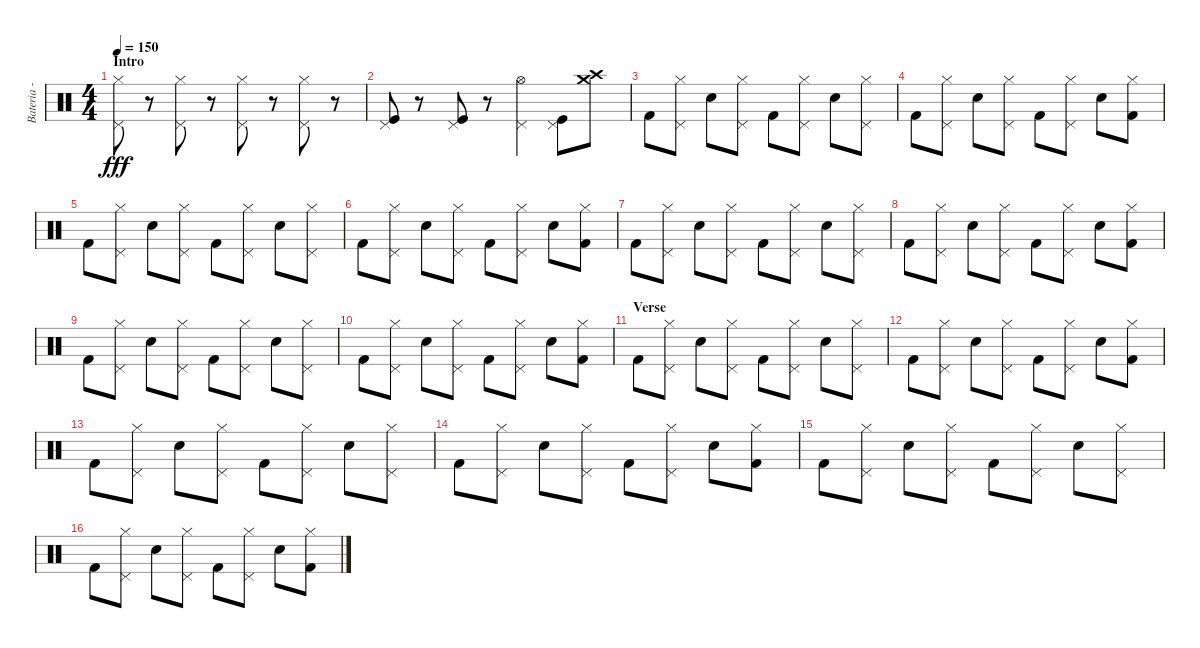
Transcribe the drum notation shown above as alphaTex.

\track ("Bateria - Larzon" "Bateria - ") {instrument percussion}
\staff {score}
\articulation defaults
\ts (4 4)
\section ("" "Intro")
\tempo 150
\clef neutral
\ks c
("Pedal Hi-Hat (hit)" "Hi-Hat (closed)").8{dy fff} r.8 ("Pedal Hi-Hat (hit)" "Hi-Hat (closed)").8 r.8 ("Pedal Hi-Hat (hit)" "Hi-Hat (closed)").8 r.8 ("Pedal Hi-Hat (hit)" "Hi-Hat (closed)").8 r.8 |
("Pedal Hi-Hat (hit)" "Kick (hit)").8 r.8 ("Pedal Hi-Hat (hit)" "Kick (hit)").8 r.8 ("Pedal Hi-Hat (hit)" "Hi-Hat (open)").4 ("Pedal Hi-Hat (hit)" "Kick (hit)").8 ("Crash medium (hit)" "Crash high (hit)").8 |
"Kick (hit) 2".8 ("Hi-Hat (closed)" "Pedal Hi-Hat (hit)").8 "Electric Snare (hit)".8 ("Hi-Hat (closed)" "Pedal Hi-Hat (hit)").8 "Kick (hit) 2".8 ("Hi-Hat (closed)" "Pedal Hi-Hat (hit)").8 "Electric Snare (hit)".8 ("Hi-Hat (closed)" "Pedal Hi-Hat (hit)").8 |
"Kick (hit) 2".8 ("Hi-Hat (closed)" "Pedal Hi-Hat (hit)").8 "Electric Snare (hit)".8 ("Hi-Hat (closed)" "Pedal Hi-Hat (hit)").8 "Kick (hit) 2".8 ("Hi-Hat (closed)" "Pedal Hi-Hat (hit)").8 "Electric Snare (hit)".8 ("Kick (hit) 2" "Hi-Hat (closed)").8 |
"Kick (hit) 2".8 ("Hi-Hat (closed)" "Pedal Hi-Hat (hit)").8 "Electric Snare (hit)".8 ("Hi-Hat (closed)" "Pedal Hi-Hat (hit)").8 "Kick (hit) 2".8 ("Hi-Hat (closed)" "Pedal Hi-Hat (hit)").8 "Electric Snare (hit)".8 ("Hi-Hat (closed)" "Pedal Hi-Hat (hit)").8 |
"Kick (hit) 2".8 ("Hi-Hat (closed)" "Pedal Hi-Hat (hit)").8 "Electric Snare (hit)".8 ("Hi-Hat (closed)" "Pedal Hi-Hat (hit)").8 "Kick (hit) 2".8 ("Hi-Hat (closed)" "Pedal Hi-Hat (hit)").8 "Electric Snare (hit)".8 ("Kick (hit) 2" "Hi-Hat (closed)").8 |
"Kick (hit) 2".8 ("Hi-Hat (closed)" "Pedal Hi-Hat (hit)").8 "Electric Snare (hit)".8 ("Hi-Hat (closed)" "Pedal Hi-Hat (hit)").8 "Kick (hit) 2".8 ("Hi-Hat (closed)" "Pedal Hi-Hat (hit)").8 "Electric Snare (hit)".8 ("Hi-Hat (closed)" "Pedal Hi-Hat (hit)").8 |
"Kick (hit) 2".8 ("Hi-Hat (closed)" "Pedal Hi-Hat (hit)").8 "Electric Snare (hit)".8 ("Hi-Hat (closed)" "Pedal Hi-Hat (hit)").8 "Kick (hit) 2".8 ("Hi-Hat (closed)" "Pedal Hi-Hat (hit)").8 "Electric Snare (hit)".8 ("Kick (hit) 2" "Hi-Hat (closed)").8 |
"Kick (hit) 2".8 ("Hi-Hat (closed)" "Pedal Hi-Hat (hit)").8 "Electric Snare (hit)".8 ("Hi-Hat (closed)" "Pedal Hi-Hat (hit)").8 "Kick (hit) 2".8 ("Hi-Hat (closed)" "Pedal Hi-Hat (hit)").8 "Electric Snare (hit)".8 ("Hi-Hat (closed)" "Pedal Hi-Hat (hit)").8 |
"Kick (hit) 2".8 ("Hi-Hat (closed)" "Pedal Hi-Hat (hit)").8 "Electric Snare (hit)".8 ("Hi-Hat (closed)" "Pedal Hi-Hat (hit)").8 "Kick (hit) 2".8 ("Hi-Hat (closed)" "Pedal Hi-Hat (hit)").8 "Electric Snare (hit)".8 ("Kick (hit) 2" "Hi-Hat (closed)").8 |
\section ("" "Verse")
"Kick (hit) 2".8 ("Hi-Hat (closed)" "Pedal Hi-Hat (hit)").8 "Electric Snare (hit)".8 ("Hi-Hat (closed)" "Pedal Hi-Hat (hit)").8 "Kick (hit) 2".8 ("Hi-Hat (closed)" "Pedal Hi-Hat (hit)").8 "Electric Snare (hit)".8 ("Hi-Hat (closed)" "Pedal Hi-Hat (hit)").8 |
"Kick (hit) 2".8 ("Hi-Hat (closed)" "Pedal Hi-Hat (hit)").8 "Electric Snare (hit)".8 ("Hi-Hat (closed)" "Pedal Hi-Hat (hit)").8 "Kick (hit) 2".8 ("Hi-Hat (closed)" "Pedal Hi-Hat (hit)").8 "Electric Snare (hit)".8 ("Kick (hit) 2" "Hi-Hat (closed)").8 |
"Kick (hit) 2".8 ("Hi-Hat (closed)" "Pedal Hi-Hat (hit)").8 "Electric Snare (hit)".8 ("Hi-Hat (closed)" "Pedal Hi-Hat (hit)").8 "Kick (hit) 2".8 ("Hi-Hat (closed)" "Pedal Hi-Hat (hit)").8 "Electric Snare (hit)".8 ("Hi-Hat (closed)" "Pedal Hi-Hat (hit)").8 |
"Kick (hit) 2".8 ("Hi-Hat (closed)" "Pedal Hi-Hat (hit)").8 "Electric Snare (hit)".8 ("Hi-Hat (closed)" "Pedal Hi-Hat (hit)").8 "Kick (hit) 2".8 ("Hi-Hat (closed)" "Pedal Hi-Hat (hit)").8 "Electric Snare (hit)".8 ("Kick (hit) 2" "Hi-Hat (closed)").8 |
"Kick (hit) 2".8 ("Hi-Hat (closed)" "Pedal Hi-Hat (hit)").8 "Electric Snare (hit)".8 ("Hi-Hat (closed)" "Pedal Hi-Hat (hit)").8 "Kick (hit) 2".8 ("Hi-Hat (closed)" "Pedal Hi-Hat (hit)").8 "Electric Snare (hit)".8 ("Hi-Hat (closed)" "Pedal Hi-Hat (hit)").8 |
"Kick (hit) 2".8 ("Hi-Hat (closed)" "Pedal Hi-Hat (hit)").8 "Electric Snare (hit)".8 ("Hi-Hat (closed)" "Pedal Hi-Hat (hit)").8 "Kick (hit) 2".8 ("Hi-Hat (closed)" "Pedal Hi-Hat (hit)").8 "Electric Snare (hit)".8 ("Kick (hit) 2" "Hi-Hat (closed)").8
